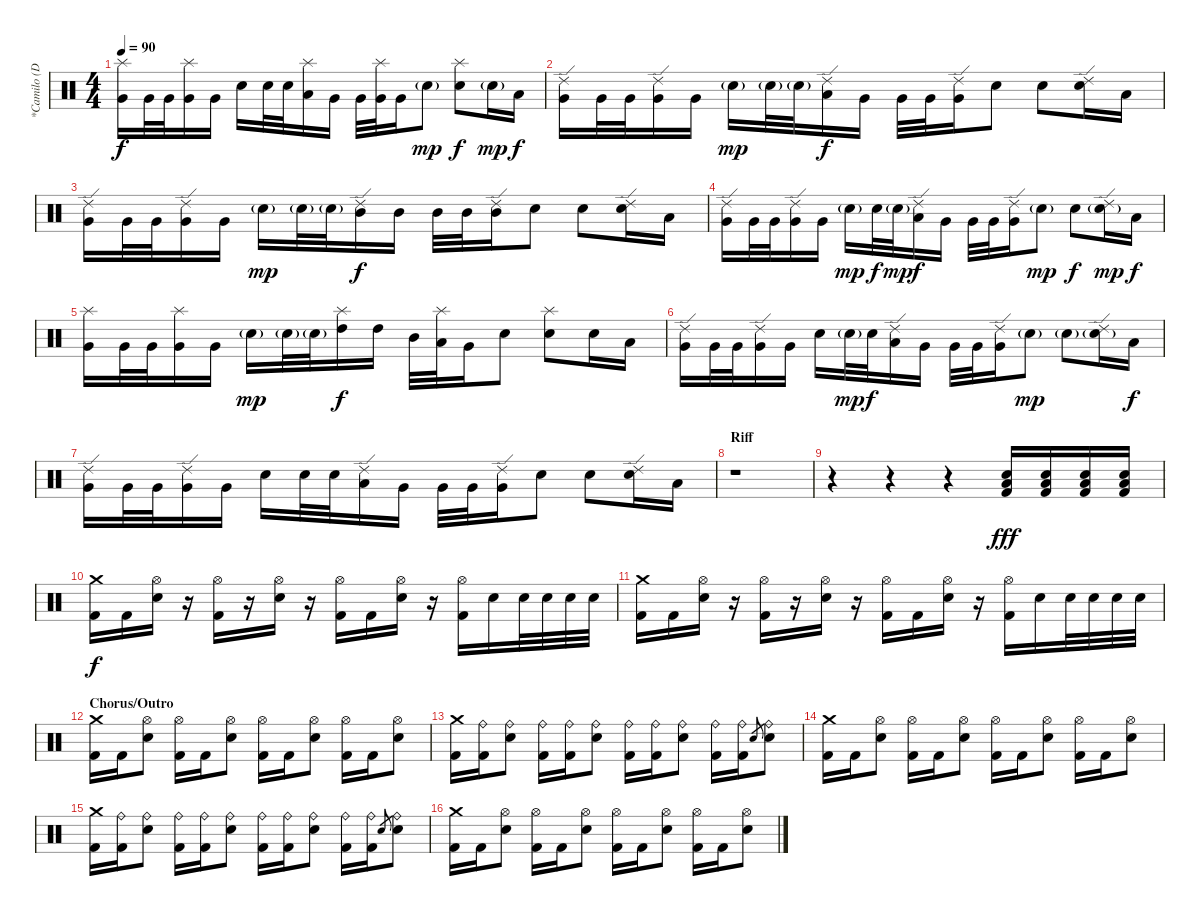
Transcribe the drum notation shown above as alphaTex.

\track ("*Camilo (Drums)" "*Camilo (D") {instrument percussion}
\staff {score}
\articulation defaults
\ts (4 4)
\tempo 90
\clef neutral
\ks c
("Splash (hit)" "Very Low Tom (hit)").16{dy f} "Very Low Tom (hit)".32 "Very Low Tom (hit)".32 ("Splash (hit)" "Very Low Tom (hit)").16 "Very Low Tom (hit)".16 "Electric Snare (hit)".16 "Electric Snare (hit)".32 "Electric Snare (hit)".32 ("Splash (hit)" "Low Tom (hit)").16 "Very Low Tom (hit)".16 "Very Low Tom (hit)".32 ("Splash (hit)" "Very Low Tom (hit)").32 "Very Low Tom (hit)".16 "Electric Snare (hit)"{g}.8{dy mp} ("Splash (hit)" "Electric Snare (hit)").8{dy f} "Electric Snare (hit)"{g}.16{dy mp} "Low Tom (hit)".16{dy f} |
("Ride (edge) 2" "Very Low Tom (hit)").16 "Very Low Tom (hit)".32 "Very Low Tom (hit)".32 ("Ride (edge) 2" "Very Low Tom (hit)").16 "Very Low Tom (hit)".16 "Electric Snare (hit)"{g}.16{dy mp} "Electric Snare (hit)"{g}.32 "Electric Snare (hit)"{g}.32 ("Ride (edge) 2" "Low Tom (hit)").16{dy f} "Very Low Tom (hit)".16 "Very Low Tom (hit)".32 "Very Low Tom (hit)".32 ("Ride (edge) 2" "Very Low Tom (hit)").16 "Electric Snare (hit)".8 "Electric Snare (hit)".8 ("Ride (edge) 2" "Electric Snare (hit)").16 "Low Tom (hit)".16 |
("Ride (edge) 2" "Very Low Tom (hit)").16 "Very Low Tom (hit)".32 "Very Low Tom (hit)".32 ("Ride (edge) 2" "Very Low Tom (hit)").16 "Very Low Tom (hit)".16 "Electric Snare (hit)"{g}.16{dy mp} "Electric Snare (hit)"{g}.32 "Electric Snare (hit)"{g}.32 ("Ride (edge) 2" "Mid Tom (hit)").16{dy f} "Mid Tom (hit)".16 "Mid Tom (hit)".32 "Mid Tom (hit)".32 ("Ride (edge) 2" "Mid Tom (hit)").16 "Electric Snare (hit)".8 "Electric Snare (hit)".8 ("Ride (edge) 2" "Electric Snare (hit)").16 "Low Tom (hit)".16 |
("Ride (edge) 2" "Very Low Tom (hit)").16 "Very Low Tom (hit)".32 "Very Low Tom (hit)".32 ("Ride (edge) 2" "Very Low Tom (hit)").16 "Very Low Tom (hit)".16 "Electric Snare (hit)"{g}.16{dy mp} "Electric Snare (hit)".32{dy f} "Electric Snare (hit)"{g}.32{dy mp} ("Ride (edge) 2" "Low Tom (hit)").16{dy f} "Very Low Tom (hit)".16 "Very Low Tom (hit)".32 "Very Low Tom (hit)".32 ("Ride (edge) 2" "Very Low Tom (hit)").16 "Electric Snare (hit)"{g}.8{dy mp} "Electric Snare (hit)".8{dy f} ("Ride (edge) 2" "Electric Snare (hit)"{g}).16{dy mp} "Low Tom (hit)".16{dy f} |
("Splash (hit)" "Very Low Tom (hit)").16 "Very Low Tom (hit)".32 "Very Low Tom (hit)".32 ("Splash (hit)" "Very Low Tom (hit)").16 "Very Low Tom (hit)".16 "Electric Snare (hit)"{g}.16{dy mp} "Electric Snare (hit)"{g}.32 "Electric Snare (hit)"{g}.32 ("Splash (hit)" "High Tom (hit)").16{dy f} "High Tom (hit)".16 "Mid Tom (hit)".32 ("Splash (hit)" "Low Tom (hit)").32 "Very Low Tom (hit)".16 "Electric Snare (hit)".8 ("Splash (hit)" "Electric Snare (hit)").8 "Electric Snare (hit)".16 "Low Tom (hit)".16 |
("Ride (edge) 2" "Very Low Tom (hit)").16 "Very Low Tom (hit)".32 "Very Low Tom (hit)".32 ("Ride (edge) 2" "Very Low Tom (hit)").16 "Very Low Tom (hit)".16 "Electric Snare (hit)".16 "Electric Snare (hit)"{g}.32{dy mp} "Electric Snare (hit)".32{dy f} ("Ride (edge) 2" "Low Tom (hit)").16 "Very Low Tom (hit)".16 "Very Low Tom (hit)".32 "Very Low Tom (hit)".32 ("Ride (edge) 2" "Very Low Tom (hit)").16 "Electric Snare (hit)"{g}.8{dy mp} "Electric Snare (hit)"{g}.8 ("Ride (edge) 2" "Electric Snare (hit)"{g}).16 "Low Tom (hit)".16{dy f} |
("Ride (edge) 2" "Very Low Tom (hit)").16 "Very Low Tom (hit)".32 "Very Low Tom (hit)".32 ("Ride (edge) 2" "Very Low Tom (hit)").16 "Very Low Tom (hit)".16 "Electric Snare (hit)".16 "Electric Snare (hit)".32 "Electric Snare (hit)".32 ("Ride (edge) 2" "Low Tom (hit)").16 "Very Low Tom (hit)".16 "Very Low Tom (hit)".32 "Very Low Tom (hit)".32 ("Ride (edge) 2" "Very Low Tom (hit)").16 "Electric Snare (hit)".8 "Electric Snare (hit)".8 ("Ride (edge) 2" "Electric Snare (hit)").16 "Low Tom (hit)".16 |
\section ("" "Riff")
r.1 |
r.4 r.4 r.4 ("Electric Snare (hit)" "Low Floor Tom (hit)" "Kick (hit) 2").16{dy fff} ("Electric Snare (hit)" "Low Floor Tom (hit)" "Kick (hit) 2").16 ("Electric Snare (hit)" "Low Floor Tom (hit)" "Kick (hit) 2").16 ("Electric Snare (hit)" "Low Floor Tom (hit)" "Kick (hit) 2").16 |
("Crash medium (hit)" "Kick (hit) 2").16{dy f} "Kick (hit) 2".16 ("Hi-Hat (open)" "Electric Snare (hit)").16 r.16 ("Hi-Hat (open)" "Kick (hit) 2").16 r.16 ("Hi-Hat (open)" "Electric Snare (hit)").16 r.16 ("Hi-Hat (open)" "Kick (hit) 2").16 "Kick (hit) 2".16 ("Hi-Hat (open)" "Electric Snare (hit)").16 r.16 ("Hi-Hat (open)" "Kick (hit) 2").16 "Electric Snare (hit)".16 "Electric Snare (hit)".32 "Electric Snare (hit)".32 "Electric Snare (hit)".32 "Electric Snare (hit)".32 |
("Crash medium (hit)" "Kick (hit) 2").16 "Kick (hit) 2".16 ("Hi-Hat (open)" "Electric Snare (hit)").16 r.16 ("Hi-Hat (open)" "Kick (hit) 2").16 r.16 ("Hi-Hat (open)" "Electric Snare (hit)").16 r.16 ("Hi-Hat (open)" "Kick (hit) 2").16 "Kick (hit) 2".16 ("Hi-Hat (open)" "Electric Snare (hit)").16 r.16 ("Hi-Hat (open)" "Kick (hit) 2").16 "Electric Snare (hit)".16 "Electric Snare (hit)".32 "Electric Snare (hit)".32 "Electric Snare (hit)".32 "Electric Snare (hit)".32 |
\section ("" "Chorus/Outro")
("Crash medium (hit)" "Kick (hit) 2").16 "Kick (hit) 2".16 ("Hi-Hat (open)" "Electric Snare (hit)").8 ("Hi-Hat (open)" "Kick (hit) 2").16 "Kick (hit) 2".16 ("Hi-Hat (open)" "Electric Snare (hit)").8 ("Hi-Hat (open)" "Kick (hit) 2").16 "Kick (hit) 2".16 ("Hi-Hat (open)" "Electric Snare (hit)").8 ("Hi-Hat (open)" "Kick (hit) 2").16 "Kick (hit) 2".16 ("Hi-Hat (open)" "Electric Snare (hit)").8 |
("Crash medium (hit)" "Kick (hit) 2").16 ("Ride (bell)" "Kick (hit) 2").16 ("Ride (bell)" "Electric Snare (hit)").8 ("Ride (bell)" "Kick (hit) 2").16 ("Ride (bell)" "Kick (hit) 2").16 ("Ride (bell)" "Electric Snare (hit)").8 ("Ride (bell)" "Kick (hit) 2").16 ("Ride (bell)" "Kick (hit) 2").16 ("Ride (bell)" "Electric Snare (hit)").8 ("Ride (bell)" "Kick (hit) 2").16 ("Ride (bell)" "Kick (hit) 2").16 "Electric Snare (hit)".8{gr} ("Ride (bell)" "Electric Snare (hit)").8 |
("Crash medium (hit)" "Kick (hit) 2").16 "Kick (hit) 2".16 ("Hi-Hat (open)" "Electric Snare (hit)").8 ("Hi-Hat (open)" "Kick (hit) 2").16 "Kick (hit) 2".16 ("Hi-Hat (open)" "Electric Snare (hit)").8 ("Hi-Hat (open)" "Kick (hit) 2").16 "Kick (hit) 2".16 ("Hi-Hat (open)" "Electric Snare (hit)").8 ("Hi-Hat (open)" "Kick (hit) 2").16 "Kick (hit) 2".16 ("Hi-Hat (open)" "Electric Snare (hit)").8 |
("Crash medium (hit)" "Kick (hit) 2").16 ("Ride (bell)" "Kick (hit) 2").16 ("Ride (bell)" "Electric Snare (hit)").8 ("Ride (bell)" "Kick (hit) 2").16 ("Ride (bell)" "Kick (hit) 2").16 ("Ride (bell)" "Electric Snare (hit)").8 ("Ride (bell)" "Kick (hit) 2").16 ("Ride (bell)" "Kick (hit) 2").16 ("Ride (bell)" "Electric Snare (hit)").8 ("Ride (bell)" "Kick (hit) 2").16 ("Ride (bell)" "Kick (hit) 2").16 "Electric Snare (hit)".8{gr} ("Ride (bell)" "Electric Snare (hit)").8 |
("Crash medium (hit)" "Kick (hit) 2").16 "Kick (hit) 2".16 ("Hi-Hat (open)" "Electric Snare (hit)").8 ("Hi-Hat (open)" "Kick (hit) 2").16 "Kick (hit) 2".16 ("Hi-Hat (open)" "Electric Snare (hit)").8 ("Hi-Hat (open)" "Kick (hit) 2").16 "Kick (hit) 2".16 ("Hi-Hat (open)" "Electric Snare (hit)").8 ("Hi-Hat (open)" "Kick (hit) 2").16 "Kick (hit) 2".16 ("Hi-Hat (open)" "Electric Snare (hit)").8
